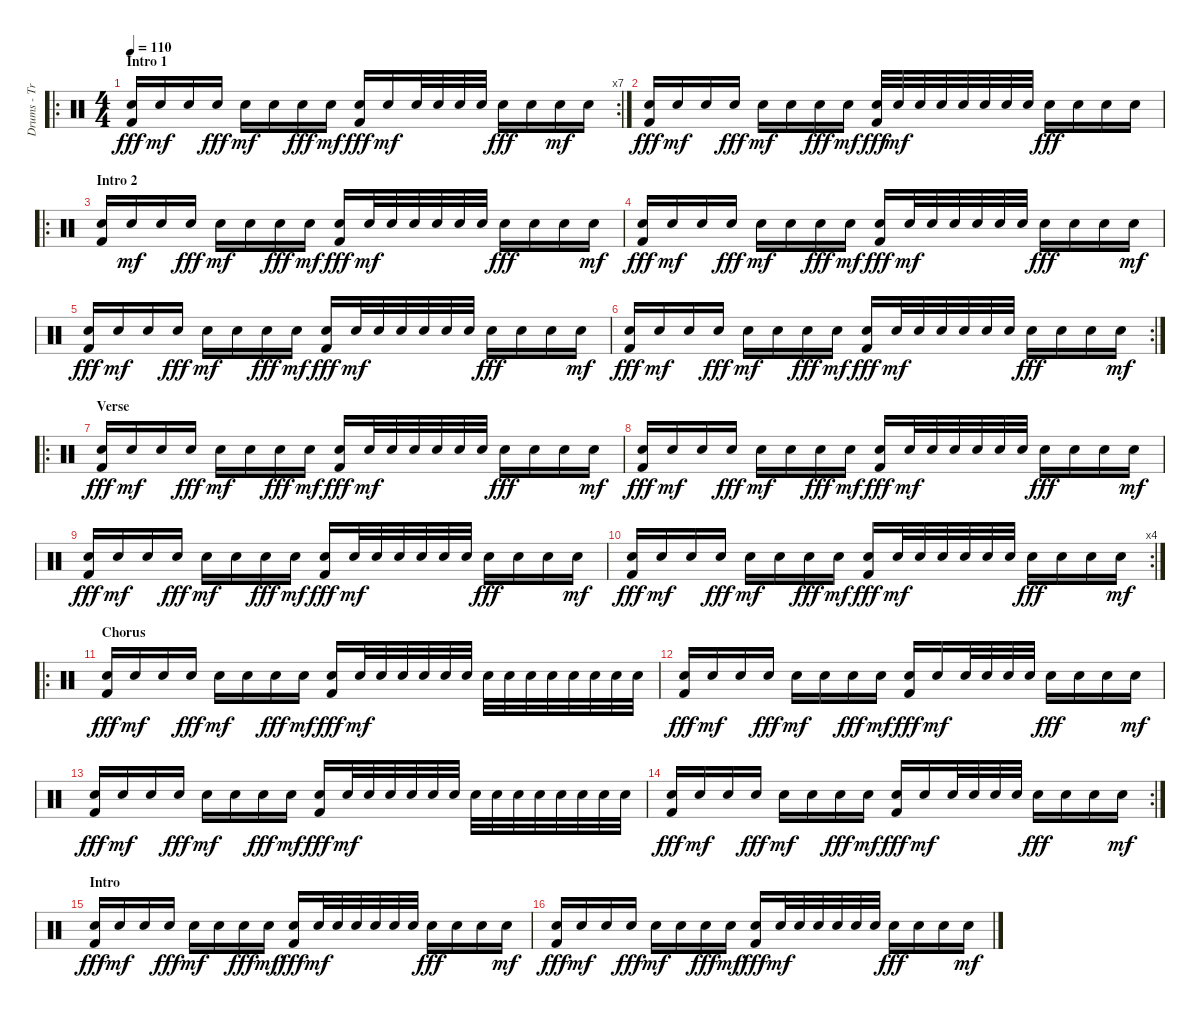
\track ("Drums - Travis" "Drums - Tr") {instrument percussion}
\staff {score}
\articulation defaults
\ro
\rc 7
\ts (4 4)
\section ("" "Intro 1")
\tempo 110
\clef neutral
\ks c
("Electric Snare (hit)" "Kick (hit) 2").16{dy fff} "Electric Snare (hit)".16{dy mf} "Electric Snare (hit)".16 "Electric Snare (hit)".16{dy fff} "Electric Snare (hit)".16{dy mf} "Electric Snare (hit)".16 "Electric Snare (hit)".16{dy fff} "Electric Snare (hit)".16{dy mf} ("Electric Snare (hit)" "Kick (hit) 2").16{dy fff} "Electric Snare (hit)".16{dy mf} "Electric Snare (hit)".32 "Electric Snare (hit)".32 "Electric Snare (hit)".32 "Electric Snare (hit)".32 "Electric Snare (hit)".16{dy fff} "Electric Snare (hit)".16 "Electric Snare (hit)".16{dy mf} "Electric Snare (hit)".16 |
("Electric Snare (hit)" "Kick (hit) 2").16{dy fff} "Electric Snare (hit)".16{dy mf} "Electric Snare (hit)".16 "Electric Snare (hit)".16{dy fff} "Electric Snare (hit)".16{dy mf} "Electric Snare (hit)".16 "Electric Snare (hit)".16{dy fff} "Electric Snare (hit)".16{dy mf} ("Electric Snare (hit)" "Kick (hit) 2").32{dy fff} "Electric Snare (hit)".32{dy mf} "Electric Snare (hit)".32 "Electric Snare (hit)".32 "Electric Snare (hit)".32 "Electric Snare (hit)".32 "Electric Snare (hit)".32 "Electric Snare (hit)".32 "Electric Snare (hit)".16{dy fff} "Electric Snare (hit)".16 "Electric Snare (hit)".16 "Electric Snare (hit)".16 |
\ro
\section ("" "Intro 2")
("Electric Snare (hit)" "Kick (hit) 2").16 "Electric Snare (hit)".16{dy mf} "Electric Snare (hit)".16 "Electric Snare (hit)".16{dy fff} "Electric Snare (hit)".16{dy mf} "Electric Snare (hit)".16 "Electric Snare (hit)".16{dy fff} "Electric Snare (hit)".16{dy mf} ("Electric Snare (hit)" "Kick (hit) 2").16{dy fff} "Electric Snare (hit)".32{dy mf} "Electric Snare (hit)".32 "Electric Snare (hit)".32 "Electric Snare (hit)".32 "Electric Snare (hit)".32 "Electric Snare (hit)".32 "Electric Snare (hit)".16{dy fff} "Electric Snare (hit)".16 "Electric Snare (hit)".16 "Electric Snare (hit)".16{dy mf} |
("Electric Snare (hit)" "Kick (hit) 2").16{dy fff} "Electric Snare (hit)".16{dy mf} "Electric Snare (hit)".16 "Electric Snare (hit)".16{dy fff} "Electric Snare (hit)".16{dy mf} "Electric Snare (hit)".16 "Electric Snare (hit)".16{dy fff} "Electric Snare (hit)".16{dy mf} ("Electric Snare (hit)" "Kick (hit) 2").16{dy fff} "Electric Snare (hit)".32{dy mf} "Electric Snare (hit)".32 "Electric Snare (hit)".32 "Electric Snare (hit)".32 "Electric Snare (hit)".32 "Electric Snare (hit)".32 "Electric Snare (hit)".16{dy fff} "Electric Snare (hit)".16 "Electric Snare (hit)".16 "Electric Snare (hit)".16{dy mf} |
("Electric Snare (hit)" "Kick (hit) 2").16{dy fff} "Electric Snare (hit)".16{dy mf} "Electric Snare (hit)".16 "Electric Snare (hit)".16{dy fff} "Electric Snare (hit)".16{dy mf} "Electric Snare (hit)".16 "Electric Snare (hit)".16{dy fff} "Electric Snare (hit)".16{dy mf} ("Electric Snare (hit)" "Kick (hit) 2").16{dy fff} "Electric Snare (hit)".32{dy mf} "Electric Snare (hit)".32 "Electric Snare (hit)".32 "Electric Snare (hit)".32 "Electric Snare (hit)".32 "Electric Snare (hit)".32 "Electric Snare (hit)".16{dy fff} "Electric Snare (hit)".16 "Electric Snare (hit)".16 "Electric Snare (hit)".16{dy mf} |
\rc 2
("Electric Snare (hit)" "Kick (hit) 2").16{dy fff} "Electric Snare (hit)".16{dy mf} "Electric Snare (hit)".16 "Electric Snare (hit)".16{dy fff} "Electric Snare (hit)".16{dy mf} "Electric Snare (hit)".16 "Electric Snare (hit)".16{dy fff} "Electric Snare (hit)".16{dy mf} ("Electric Snare (hit)" "Kick (hit) 2").16{dy fff} "Electric Snare (hit)".32{dy mf} "Electric Snare (hit)".32 "Electric Snare (hit)".32 "Electric Snare (hit)".32 "Electric Snare (hit)".32 "Electric Snare (hit)".32 "Electric Snare (hit)".16{dy fff} "Electric Snare (hit)".16 "Electric Snare (hit)".16 "Electric Snare (hit)".16{dy mf} |
\ro
\section ("" "Verse")
("Electric Snare (hit)" "Kick (hit) 2").16{dy fff} "Electric Snare (hit)".16{dy mf} "Electric Snare (hit)".16 "Electric Snare (hit)".16{dy fff} "Electric Snare (hit)".16{dy mf} "Electric Snare (hit)".16 "Electric Snare (hit)".16{dy fff} "Electric Snare (hit)".16{dy mf} ("Electric Snare (hit)" "Kick (hit) 2").16{dy fff} "Electric Snare (hit)".32{dy mf} "Electric Snare (hit)".32 "Electric Snare (hit)".32 "Electric Snare (hit)".32 "Electric Snare (hit)".32 "Electric Snare (hit)".32 "Electric Snare (hit)".16{dy fff} "Electric Snare (hit)".16 "Electric Snare (hit)".16 "Electric Snare (hit)".16{dy mf} |
("Electric Snare (hit)" "Kick (hit) 2").16{dy fff} "Electric Snare (hit)".16{dy mf} "Electric Snare (hit)".16 "Electric Snare (hit)".16{dy fff} "Electric Snare (hit)".16{dy mf} "Electric Snare (hit)".16 "Electric Snare (hit)".16{dy fff} "Electric Snare (hit)".16{dy mf} ("Electric Snare (hit)" "Kick (hit) 2").16{dy fff} "Electric Snare (hit)".32{dy mf} "Electric Snare (hit)".32 "Electric Snare (hit)".32 "Electric Snare (hit)".32 "Electric Snare (hit)".32 "Electric Snare (hit)".32 "Electric Snare (hit)".16{dy fff} "Electric Snare (hit)".16 "Electric Snare (hit)".16 "Electric Snare (hit)".16{dy mf} |
("Electric Snare (hit)" "Kick (hit) 2").16{dy fff} "Electric Snare (hit)".16{dy mf} "Electric Snare (hit)".16 "Electric Snare (hit)".16{dy fff} "Electric Snare (hit)".16{dy mf} "Electric Snare (hit)".16 "Electric Snare (hit)".16{dy fff} "Electric Snare (hit)".16{dy mf} ("Electric Snare (hit)" "Kick (hit) 2").16{dy fff} "Electric Snare (hit)".32{dy mf} "Electric Snare (hit)".32 "Electric Snare (hit)".32 "Electric Snare (hit)".32 "Electric Snare (hit)".32 "Electric Snare (hit)".32 "Electric Snare (hit)".16{dy fff} "Electric Snare (hit)".16 "Electric Snare (hit)".16 "Electric Snare (hit)".16{dy mf} |
\rc 4
("Electric Snare (hit)" "Kick (hit) 2").16{dy fff} "Electric Snare (hit)".16{dy mf} "Electric Snare (hit)".16 "Electric Snare (hit)".16{dy fff} "Electric Snare (hit)".16{dy mf} "Electric Snare (hit)".16 "Electric Snare (hit)".16{dy fff} "Electric Snare (hit)".16{dy mf} ("Electric Snare (hit)" "Kick (hit) 2").16{dy fff} "Electric Snare (hit)".32{dy mf} "Electric Snare (hit)".32 "Electric Snare (hit)".32 "Electric Snare (hit)".32 "Electric Snare (hit)".32 "Electric Snare (hit)".32 "Electric Snare (hit)".16{dy fff} "Electric Snare (hit)".16 "Electric Snare (hit)".16 "Electric Snare (hit)".16{dy mf} |
\ro
\section ("" "Chorus")
("Electric Snare (hit)" "Kick (hit) 2").16{dy fff} "Electric Snare (hit)".16{dy mf} "Electric Snare (hit)".16 "Electric Snare (hit)".16{dy fff} "Electric Snare (hit)".16{dy mf} "Electric Snare (hit)".16 "Electric Snare (hit)".16{dy fff} "Electric Snare (hit)".16{dy mf} ("Electric Snare (hit)" "Kick (hit) 2").16{dy fff} "Electric Snare (hit)".32{dy mf} "Electric Snare (hit)".32 "Electric Snare (hit)".32 "Electric Snare (hit)".32 "Electric Snare (hit)".32 "Electric Snare (hit)".32 "Electric Snare (hit)".32 "Electric Snare (hit)".32 "Electric Snare (hit)".32 "Electric Snare (hit)".32 "Electric Snare (hit)".32 "Electric Snare (hit)".32 "Electric Snare (hit)".32 "Electric Snare (hit)".32 |
("Electric Snare (hit)" "Kick (hit) 2").16{dy fff} "Electric Snare (hit)".16{dy mf} "Electric Snare (hit)".16 "Electric Snare (hit)".16{dy fff} "Electric Snare (hit)".16{dy mf} "Electric Snare (hit)".16 "Electric Snare (hit)".16{dy fff} "Electric Snare (hit)".16{dy mf} ("Electric Snare (hit)" "Kick (hit) 2").16{dy fff} "Electric Snare (hit)".16{dy mf} "Electric Snare (hit)".32 "Electric Snare (hit)".32 "Electric Snare (hit)".32 "Electric Snare (hit)".32 "Electric Snare (hit)".16{dy fff} "Electric Snare (hit)".16 "Electric Snare (hit)".16 "Electric Snare (hit)".16{dy mf} |
("Electric Snare (hit)" "Kick (hit) 2").16{dy fff} "Electric Snare (hit)".16{dy mf} "Electric Snare (hit)".16 "Electric Snare (hit)".16{dy fff} "Electric Snare (hit)".16{dy mf} "Electric Snare (hit)".16 "Electric Snare (hit)".16{dy fff} "Electric Snare (hit)".16{dy mf} ("Electric Snare (hit)" "Kick (hit) 2").16{dy fff} "Electric Snare (hit)".32{dy mf} "Electric Snare (hit)".32 "Electric Snare (hit)".32 "Electric Snare (hit)".32 "Electric Snare (hit)".32 "Electric Snare (hit)".32 "Electric Snare (hit)".32 "Electric Snare (hit)".32 "Electric Snare (hit)".32 "Electric Snare (hit)".32 "Electric Snare (hit)".32 "Electric Snare (hit)".32 "Electric Snare (hit)".32 "Electric Snare (hit)".32 |
\rc 2
("Electric Snare (hit)" "Kick (hit) 2").16{dy fff} "Electric Snare (hit)".16{dy mf} "Electric Snare (hit)".16 "Electric Snare (hit)".16{dy fff} "Electric Snare (hit)".16{dy mf} "Electric Snare (hit)".16 "Electric Snare (hit)".16{dy fff} "Electric Snare (hit)".16{dy mf} ("Electric Snare (hit)" "Kick (hit) 2").16{dy fff} "Electric Snare (hit)".16{dy mf} "Electric Snare (hit)".32 "Electric Snare (hit)".32 "Electric Snare (hit)".32 "Electric Snare (hit)".32 "Electric Snare (hit)".16{dy fff} "Electric Snare (hit)".16 "Electric Snare (hit)".16 "Electric Snare (hit)".16{dy mf} |
\section ("" "Intro")
("Electric Snare (hit)" "Kick (hit) 2").16{dy fff} "Electric Snare (hit)".16{dy mf} "Electric Snare (hit)".16 "Electric Snare (hit)".16{dy fff} "Electric Snare (hit)".16{dy mf} "Electric Snare (hit)".16 "Electric Snare (hit)".16{dy fff} "Electric Snare (hit)".16{dy mf} ("Electric Snare (hit)" "Kick (hit) 2").16{dy fff} "Electric Snare (hit)".32{dy mf} "Electric Snare (hit)".32 "Electric Snare (hit)".32 "Electric Snare (hit)".32 "Electric Snare (hit)".32 "Electric Snare (hit)".32 "Electric Snare (hit)".16{dy fff} "Electric Snare (hit)".16 "Electric Snare (hit)".16 "Electric Snare (hit)".16{dy mf} |
("Electric Snare (hit)" "Kick (hit) 2").16{dy fff} "Electric Snare (hit)".16{dy mf} "Electric Snare (hit)".16 "Electric Snare (hit)".16{dy fff} "Electric Snare (hit)".16{dy mf} "Electric Snare (hit)".16 "Electric Snare (hit)".16{dy fff} "Electric Snare (hit)".16{dy mf} ("Electric Snare (hit)" "Kick (hit) 2").16{dy fff} "Electric Snare (hit)".32{dy mf} "Electric Snare (hit)".32 "Electric Snare (hit)".32 "Electric Snare (hit)".32 "Electric Snare (hit)".32 "Electric Snare (hit)".32 "Electric Snare (hit)".16{dy fff} "Electric Snare (hit)".16 "Electric Snare (hit)".16 "Electric Snare (hit)".16{dy mf}
